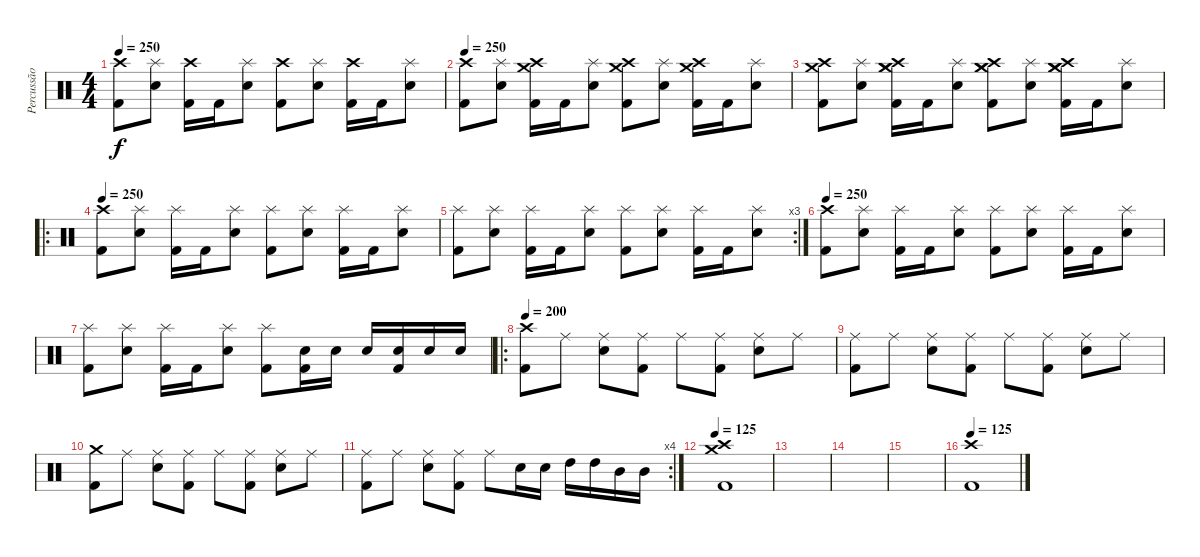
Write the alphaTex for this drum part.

\track ("Percussão" "Percussão") {instrument percussion}
\staff {score}
\articulation defaults
\ts (4 4)
\tempo 250
\clef neutral
\ks c
("Crash high (hit)" "Kick (hit) 2").8{dy f} ("Splash (hit)" "Electric Snare (hit)").8 ("Crash high (hit)" "Kick (hit) 2").16 "Kick (hit) 2".16 ("Splash (hit)" "Electric Snare (hit)").8 ("Crash high (hit)" "Kick (hit) 2").8 ("Splash (hit)" "Electric Snare (hit)").8 ("Crash high (hit)" "Kick (hit) 2").16 "Kick (hit) 2".16 ("Splash (hit)" "Electric Snare (hit)").8 |
\tempo 250
("Crash high (hit)" "Kick (hit) 2").8 ("Splash (hit)" "Electric Snare (hit)").8 ("Crash high (hit)" "Crash medium (hit)" "Kick (hit) 2").16 "Kick (hit) 2".16 ("Splash (hit)" "Electric Snare (hit)").8 ("Crash high (hit)" "Crash medium (hit)" "Kick (hit) 2").8 ("Splash (hit)" "Electric Snare (hit)").8 ("Crash high (hit)" "Crash medium (hit)" "Kick (hit) 2").16 "Kick (hit) 2".16 ("Splash (hit)" "Electric Snare (hit)").8 |
("Crash high (hit)" "Crash medium (hit)" "Kick (hit) 2").8 ("Splash (hit)" "Electric Snare (hit)").8 ("Crash high (hit)" "Crash medium (hit)" "Crash medium (hit)" "Kick (hit) 2").16 "Kick (hit) 2".16 ("Splash (hit)" "Electric Snare (hit)").8 ("Crash high (hit)" "Crash medium (hit)" "Crash medium (hit)" "Kick (hit) 2").8 ("Splash (hit)" "Electric Snare (hit)").8 ("Crash high (hit)" "Crash medium (hit)" "Crash medium (hit)" "Kick (hit) 2").16 "Kick (hit) 2".16 ("Splash (hit)" "Electric Snare (hit)").8 |
\ro
\tempo 250
("Crash high (hit)" "Kick (hit) 2").8 ("Splash (hit)" "Electric Snare (hit)").8 ("Splash (hit)" "Kick (hit) 2").16 "Kick (hit) 2".16 ("Splash (hit)" "Electric Snare (hit)").8 ("Splash (hit)" "Kick (hit) 2").8 ("Splash (hit)" "Electric Snare (hit)").8 ("Splash (hit)" "Kick (hit) 2").16 "Kick (hit) 2".16 ("Splash (hit)" "Electric Snare (hit)").8 |
\rc 3
("Splash (hit)" "Kick (hit) 2").8 ("Splash (hit)" "Electric Snare (hit)").8 ("Splash (hit)" "Kick (hit) 2").16 "Kick (hit) 2".16 ("Splash (hit)" "Electric Snare (hit)").8 ("Splash (hit)" "Kick (hit) 2").8 ("Splash (hit)" "Electric Snare (hit)").8 ("Splash (hit)" "Kick (hit) 2").16 "Kick (hit) 2".16 ("Splash (hit)" "Electric Snare (hit)").8 |
\tempo 250
("Crash high (hit)" "Kick (hit) 2").8 ("Splash (hit)" "Electric Snare (hit)").8 ("Splash (hit)" "Kick (hit) 2").16 "Kick (hit) 2".16 ("Splash (hit)" "Electric Snare (hit)").8 ("Splash (hit)" "Kick (hit) 2").8 ("Splash (hit)" "Electric Snare (hit)").8 ("Splash (hit)" "Kick (hit) 2").16 "Kick (hit) 2".16 ("Splash (hit)" "Electric Snare (hit)").8 |
("Splash (hit)" "Kick (hit) 2").8 ("Splash (hit)" "Electric Snare (hit)").8 ("Splash (hit)" "Kick (hit) 2").16 "Kick (hit) 2".16 ("Splash (hit)" "Electric Snare (hit)").8 ("Splash (hit)" "Kick (hit) 2").8 ("Electric Snare (hit)" "Kick (hit) 2").16 "Electric Snare (hit)".16 "Electric Snare (hit)".16 ("Electric Snare (hit)" "Kick (hit) 2").16 "Electric Snare (hit)".16 "Electric Snare (hit)".16 |
\ro
\tempo 200
("Crash high (hit)" "Kick (hit) 2").8 "Ride (middle)".8 ("Ride (middle)" "Electric Snare (hit)").8 ("Ride (middle)" "Kick (hit) 2").8 "Ride (middle)".8 ("Ride (middle)" "Kick (hit) 2").8 ("Ride (middle)" "Electric Snare (hit)").8 "Ride (middle)".8 |
("Ride (middle)" "Kick (hit) 2").8 "Ride (middle)".8 ("Ride (middle)" "Electric Snare (hit)").8 ("Ride (middle)" "Kick (hit) 2").8 "Ride (middle)".8 ("Ride (middle)" "Kick (hit) 2").8 ("Ride (middle)" "Electric Snare (hit)").8 "Ride (middle)".8 |
("Crash medium (hit)" "Kick (hit) 2").8 "Ride (middle)".8 ("Ride (middle)" "Electric Snare (hit)").8 ("Ride (middle)" "Kick (hit) 2").8 "Ride (middle)".8 ("Ride (middle)" "Kick (hit) 2").8 ("Ride (middle)" "Electric Snare (hit)").8 "Ride (middle)".8 |
\rc 4
("Ride (middle)" "Kick (hit) 2").8 "Ride (middle)".8 ("Ride (middle)" "Electric Snare (hit)").8 ("Ride (middle)" "Kick (hit) 2").8 "Ride (middle)".8 "Electric Snare (hit)".16 "Electric Snare (hit)".16 "High Tom (hit)".16 "High Tom (hit)".16 "Mid Tom (hit)".16 "Mid Tom (hit)".16 |
\tempo 125
("Crash high (hit)" "Crash medium (hit)" "Kick (hit) 2").1 |
|
|
|
\tempo 125
("Crash high (hit)" "Kick (hit) 2").1
